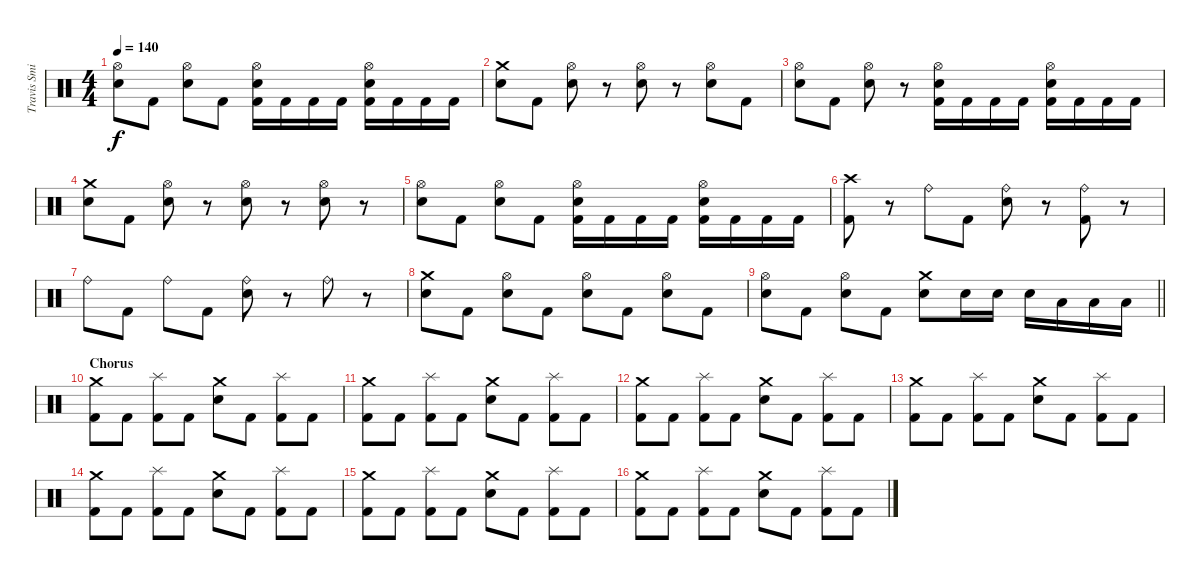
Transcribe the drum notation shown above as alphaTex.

\track ("Travis Smith" "Travis Smi") {instrument percussion}
\staff {score}
\articulation defaults
\ts (4 4)
\tempo 140
\clef neutral
\ks c
("Hi-Hat (open)" "Electric Snare (hit)").8{dy f} "Kick (hit) 2".8 ("Hi-Hat (open)" "Electric Snare (hit)").8 "Kick (hit) 2".8 ("Hi-Hat (open)" "Electric Snare (hit)" "Kick (hit) 2").16 "Kick (hit) 2".16 "Kick (hit) 2".16 "Kick (hit) 2".16 ("Hi-Hat (open)" "Electric Snare (hit)" "Kick (hit) 2").16 "Kick (hit) 2".16 "Kick (hit) 2".16 "Kick (hit) 2".16 |
("Crash medium (hit)" "Electric Snare (hit)").8 "Kick (hit) 2".8 ("Hi-Hat (open)" "Electric Snare (hit)").8 r.8 ("Hi-Hat (open)" "Electric Snare (hit)").8 r.8 ("Hi-Hat (open)" "Electric Snare (hit)").8 "Kick (hit) 2".8 |
("Hi-Hat (open)" "Electric Snare (hit)").8 "Kick (hit) 2".8 ("Hi-Hat (open)" "Electric Snare (hit)").8 r.8 ("Kick (hit) 2" "Hi-Hat (open)" "Electric Snare (hit)").16 "Kick (hit) 2".16 "Kick (hit) 2".16 "Kick (hit) 2".16 ("Kick (hit) 2" "Hi-Hat (open)" "Electric Snare (hit)").16 "Kick (hit) 2".16 "Kick (hit) 2".16 "Kick (hit) 2".16 |
("Crash medium (hit)" "Electric Snare (hit)").8 "Kick (hit) 2".8 ("Hi-Hat (open)" "Electric Snare (hit)").8 r.8 ("Hi-Hat (open)" "Electric Snare (hit)").8 r.8 ("Hi-Hat (open)" "Electric Snare (hit)").8 r.8 |
("Hi-Hat (open)" "Electric Snare (hit)").8 "Kick (hit) 2".8 ("Hi-Hat (open)" "Electric Snare (hit)").8 "Kick (hit) 2".8 ("Hi-Hat (open)" "Electric Snare (hit)" "Kick (hit) 2").16 "Kick (hit) 2".16 "Kick (hit) 2".16 "Kick (hit) 2".16 ("Hi-Hat (open)" "Electric Snare (hit)" "Kick (hit) 2").16 "Kick (hit) 2".16 "Kick (hit) 2".16 "Kick (hit) 2".16 |
("Crash high (hit)" "Kick (hit) 2").8 r.8 "Ride (bell)".8 "Kick (hit) 2".8 ("Ride (bell)" "Electric Snare (hit)").8 r.8 ("Ride (bell)" "Kick (hit) 2").8 r.8 |
"Ride (bell)".8 "Kick (hit) 2".8 "Ride (bell)".8 "Kick (hit) 2".8 ("Ride (bell)" "Electric Snare (hit)").8 r.8 "Ride (bell)".8 r.8 |
("Crash medium (hit)" "Electric Snare (hit)").8 "Kick (hit) 2".8 ("Hi-Hat (open)" "Electric Snare (hit)").8 "Kick (hit) 2".8 ("Hi-Hat (open)" "Electric Snare (hit)").8 "Kick (hit) 2".8 ("Hi-Hat (open)" "Electric Snare (hit)").8 "Kick (hit) 2".8 |
\barLineRight lightlight
("Hi-Hat (open)" "Electric Snare (hit)").8 "Kick (hit) 2".8 ("Hi-Hat (open)" "Electric Snare (hit)").8 "Kick (hit) 2".8 ("Crash medium (hit)" "Electric Snare (hit)").8 "Electric Snare (hit)".16 "Electric Snare (hit)".16 "Electric Snare (hit)".16 "Low Tom (hit)".16 "Low Tom (hit)".16 "Low Tom (hit)".16 |
\section ("" "Chorus")
("Crash medium (hit)" "Kick (hit) 2").8 "Kick (hit) 2".8 ("Splash (hit)" "Kick (hit) 2").8 "Kick (hit) 2".8 ("Crash medium (hit)" "Electric Snare (hit)").8 "Kick (hit) 2".8 ("Splash (hit)" "Kick (hit) 2").8 "Kick (hit) 2".8 |
("Crash medium (hit)" "Kick (hit) 2").8 "Kick (hit) 2".8 ("Splash (hit)" "Kick (hit) 2").8 "Kick (hit) 2".8 ("Crash medium (hit)" "Electric Snare (hit)").8 "Kick (hit) 2".8 ("Splash (hit)" "Kick (hit) 2").8 "Kick (hit) 2".8 |
("Crash medium (hit)" "Kick (hit) 2").8 "Kick (hit) 2".8 ("Splash (hit)" "Kick (hit) 2").8 "Kick (hit) 2".8 ("Crash medium (hit)" "Electric Snare (hit)").8 "Kick (hit) 2".8 ("Splash (hit)" "Kick (hit) 2").8 "Kick (hit) 2".8 |
("Crash medium (hit)" "Kick (hit) 2").8 "Kick (hit) 2".8 ("Splash (hit)" "Kick (hit) 2").8 "Kick (hit) 2".8 ("Crash medium (hit)" "Electric Snare (hit)").8 "Kick (hit) 2".8 ("Splash (hit)" "Kick (hit) 2").8 "Kick (hit) 2".8 |
("Crash medium (hit)" "Kick (hit) 2").8 "Kick (hit) 2".8 ("Splash (hit)" "Kick (hit) 2").8 "Kick (hit) 2".8 ("Crash medium (hit)" "Electric Snare (hit)").8 "Kick (hit) 2".8 ("Splash (hit)" "Kick (hit) 2").8 "Kick (hit) 2".8 |
("Crash medium (hit)" "Kick (hit) 2").8 "Kick (hit) 2".8 ("Splash (hit)" "Kick (hit) 2").8 "Kick (hit) 2".8 ("Crash medium (hit)" "Electric Snare (hit)").8 "Kick (hit) 2".8 ("Splash (hit)" "Kick (hit) 2").8 "Kick (hit) 2".8 |
("Crash medium (hit)" "Kick (hit) 2").8 "Kick (hit) 2".8 ("Splash (hit)" "Kick (hit) 2").8 "Kick (hit) 2".8 ("Crash medium (hit)" "Electric Snare (hit)").8 "Kick (hit) 2".8 ("Splash (hit)" "Kick (hit) 2").8 "Kick (hit) 2".8
